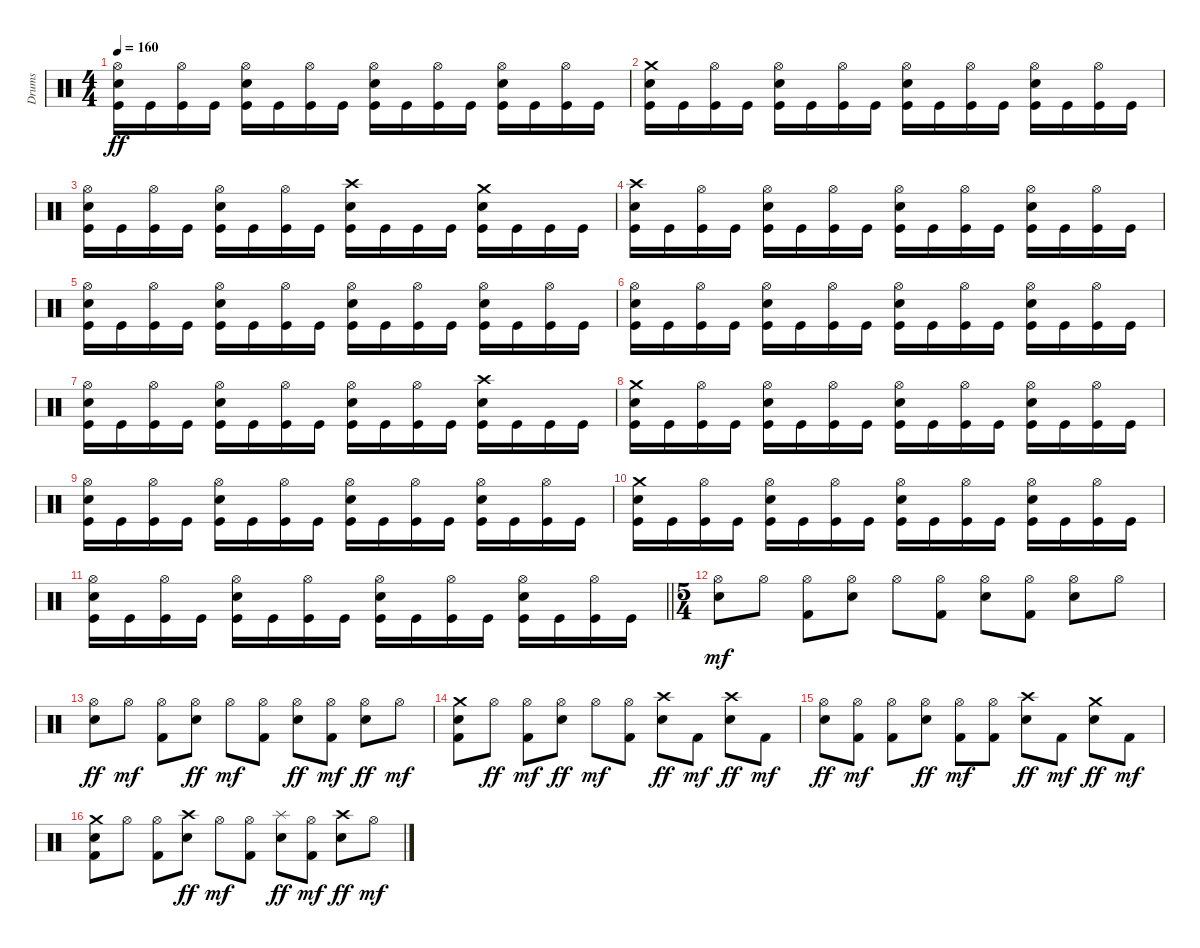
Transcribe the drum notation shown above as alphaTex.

\track ("Drums" "Drums") {instrument percussion bank 127}
\staff {score}
\articulation defaults
\ts (4 4)
\tempo 160
\clef neutral
\ks c
("Hi-Hat (open)" "Snare (hit) 2" "Kick (hit)").16{dy ff} "Kick (hit)".16 ("Hi-Hat (open)" "Kick (hit)").16 "Kick (hit)".16 ("Hi-Hat (open)" "Snare (hit) 2" "Kick (hit)").16 "Kick (hit)".16 ("Hi-Hat (open)" "Kick (hit)").16 "Kick (hit)".16 ("Hi-Hat (open)" "Snare (hit) 2" "Kick (hit)").16 "Kick (hit)".16 ("Hi-Hat (open)" "Kick (hit)").16 "Kick (hit)".16 ("Hi-Hat (open)" "Snare (hit) 2" "Kick (hit)").16 "Kick (hit)".16 ("Hi-Hat (open)" "Kick (hit)").16 "Kick (hit)".16 |
("Crash medium (hit)" "Snare (hit) 2" "Kick (hit)").16 "Kick (hit)".16 ("Hi-Hat (open)" "Kick (hit)").16 "Kick (hit)".16 ("Hi-Hat (open)" "Snare (hit) 2" "Kick (hit)").16 "Kick (hit)".16 ("Hi-Hat (open)" "Kick (hit)").16 "Kick (hit)".16 ("Hi-Hat (open)" "Snare (hit) 2" "Kick (hit)").16 "Kick (hit)".16 ("Hi-Hat (open)" "Kick (hit)").16 "Kick (hit)".16 ("Hi-Hat (open)" "Snare (hit) 2" "Kick (hit)").16 "Kick (hit)".16 ("Hi-Hat (open)" "Kick (hit)").16 "Kick (hit)".16 |
("Hi-Hat (open)" "Snare (hit) 2" "Kick (hit)").16 "Kick (hit)".16 ("Hi-Hat (open)" "Kick (hit)").16 "Kick (hit)".16 ("Hi-Hat (open)" "Snare (hit) 2" "Kick (hit)").16 "Kick (hit)".16 ("Hi-Hat (open)" "Kick (hit)").16 "Kick (hit)".16 ("Crash high (hit)" "Snare (hit) 2" "Kick (hit)").16 "Kick (hit)".16 "Kick (hit)".16 "Kick (hit)".16 ("Crash medium (hit)" "Snare (hit) 2" "Kick (hit)").16 "Kick (hit)".16 "Kick (hit)".16 "Kick (hit)".16 |
("Crash high (hit)" "Snare (hit) 2" "Kick (hit)").16 "Kick (hit)".16 ("Hi-Hat (open)" "Kick (hit)").16 "Kick (hit)".16 ("Hi-Hat (open)" "Snare (hit) 2" "Kick (hit)").16 "Kick (hit)".16 ("Hi-Hat (open)" "Kick (hit)").16 "Kick (hit)".16 ("Hi-Hat (open)" "Snare (hit) 2" "Kick (hit)").16 "Kick (hit)".16 ("Hi-Hat (open)" "Kick (hit)").16 "Kick (hit)".16 ("Hi-Hat (open)" "Snare (hit) 2" "Kick (hit)").16 "Kick (hit)".16 ("Hi-Hat (open)" "Kick (hit)").16 "Kick (hit)".16 |
("Hi-Hat (open)" "Snare (hit) 2" "Kick (hit)").16 "Kick (hit)".16 ("Hi-Hat (open)" "Kick (hit)").16 "Kick (hit)".16 ("Hi-Hat (open)" "Snare (hit) 2" "Kick (hit)").16 "Kick (hit)".16 ("Hi-Hat (open)" "Kick (hit)").16 "Kick (hit)".16 ("Hi-Hat (open)" "Snare (hit) 2" "Kick (hit)").16 "Kick (hit)".16 ("Hi-Hat (open)" "Kick (hit)").16 "Kick (hit)".16 ("Hi-Hat (open)" "Snare (hit) 2" "Kick (hit)").16 "Kick (hit)".16 ("Hi-Hat (open)" "Kick (hit)").16 "Kick (hit)".16 |
("Hi-Hat (open)" "Snare (hit) 2" "Kick (hit)").16 "Kick (hit)".16 ("Hi-Hat (open)" "Kick (hit)").16 "Kick (hit)".16 ("Hi-Hat (open)" "Snare (hit) 2" "Kick (hit)").16 "Kick (hit)".16 ("Hi-Hat (open)" "Kick (hit)").16 "Kick (hit)".16 ("Hi-Hat (open)" "Snare (hit) 2" "Kick (hit)").16 "Kick (hit)".16 ("Hi-Hat (open)" "Kick (hit)").16 "Kick (hit)".16 ("Hi-Hat (open)" "Snare (hit) 2" "Kick (hit)").16 "Kick (hit)".16 ("Hi-Hat (open)" "Kick (hit)").16 "Kick (hit)".16 |
("Hi-Hat (open)" "Snare (hit) 2" "Kick (hit)").16 "Kick (hit)".16 ("Hi-Hat (open)" "Kick (hit)").16 "Kick (hit)".16 ("Hi-Hat (open)" "Snare (hit) 2" "Kick (hit)").16 "Kick (hit)".16 ("Hi-Hat (open)" "Kick (hit)").16 "Kick (hit)".16 ("Hi-Hat (open)" "Snare (hit) 2" "Kick (hit)").16 "Kick (hit)".16 ("Hi-Hat (open)" "Kick (hit)").16 "Kick (hit)".16 ("Crash high (hit)" "Snare (hit) 2" "Kick (hit)").16 "Kick (hit)".16 "Kick (hit)".16 "Kick (hit)".16 |
("Crash medium (hit)" "Snare (hit) 2" "Kick (hit)").16 "Kick (hit)".16 ("Hi-Hat (open)" "Kick (hit)").16 "Kick (hit)".16 ("Hi-Hat (open)" "Snare (hit) 2" "Kick (hit)").16 "Kick (hit)".16 ("Hi-Hat (open)" "Kick (hit)").16 "Kick (hit)".16 ("Hi-Hat (open)" "Snare (hit) 2" "Kick (hit)").16 "Kick (hit)".16 ("Hi-Hat (open)" "Kick (hit)").16 "Kick (hit)".16 ("Hi-Hat (open)" "Snare (hit) 2" "Kick (hit)").16 "Kick (hit)".16 ("Hi-Hat (open)" "Kick (hit)").16 "Kick (hit)".16 |
("Hi-Hat (open)" "Snare (hit) 2" "Kick (hit)").16 "Kick (hit)".16 ("Hi-Hat (open)" "Kick (hit)").16 "Kick (hit)".16 ("Hi-Hat (open)" "Snare (hit) 2" "Kick (hit)").16 "Kick (hit)".16 ("Hi-Hat (open)" "Kick (hit)").16 "Kick (hit)".16 ("Hi-Hat (open)" "Snare (hit) 2" "Kick (hit)").16 "Kick (hit)".16 ("Hi-Hat (open)" "Kick (hit)").16 "Kick (hit)".16 ("Hi-Hat (open)" "Snare (hit) 2" "Kick (hit)").16 "Kick (hit)".16 ("Hi-Hat (open)" "Kick (hit)").16 "Kick (hit)".16 |
("Crash medium (hit)" "Snare (hit) 2" "Kick (hit)").16 "Kick (hit)".16 ("Hi-Hat (open)" "Kick (hit)").16 "Kick (hit)".16 ("Hi-Hat (open)" "Snare (hit) 2" "Kick (hit)").16 "Kick (hit)".16 ("Hi-Hat (open)" "Kick (hit)").16 "Kick (hit)".16 ("Hi-Hat (open)" "Snare (hit) 2" "Kick (hit)").16 "Kick (hit)".16 ("Hi-Hat (open)" "Kick (hit)").16 "Kick (hit)".16 ("Hi-Hat (open)" "Snare (hit) 2" "Kick (hit)").16 "Kick (hit)".16 ("Hi-Hat (open)" "Kick (hit)").16 "Kick (hit)".16 |
\barLineRight lightlight
("Hi-Hat (open)" "Snare (hit) 2" "Kick (hit)").16 "Kick (hit)".16 ("Hi-Hat (open)" "Kick (hit)").16 "Kick (hit)".16 ("Hi-Hat (open)" "Snare (hit) 2" "Kick (hit)").16 "Kick (hit)".16 ("Hi-Hat (open)" "Kick (hit)").16 "Kick (hit)".16 ("Hi-Hat (open)" "Snare (hit) 2" "Kick (hit)").16 "Kick (hit)".16 ("Hi-Hat (open)" "Kick (hit)").16 "Kick (hit)".16 ("Hi-Hat (open)" "Snare (hit) 2" "Kick (hit)").16 "Kick (hit)".16 ("Hi-Hat (open)" "Kick (hit)").16 "Kick (hit)".16 |
\ts (5 4)
("Hi-Hat (open)" "Snare (hit) 2").8{dy mf volume 10} "Hi-Hat (open)".8 ("Hi-Hat (open)" "Kick (hit) 2").8 ("Hi-Hat (open)" "Snare (hit) 2").8 "Hi-Hat (open)".8 ("Hi-Hat (open)" "Kick (hit) 2").8 ("Hi-Hat (open)" "Snare (hit) 2").8 ("Hi-Hat (open)" "Kick (hit) 2").8 ("Hi-Hat (open)" "Snare (hit) 2").8 "Hi-Hat (open)".8 |
("Hi-Hat (open)" "Snare (hit) 2").8{dy ff} "Hi-Hat (open)".8{dy mf} ("Hi-Hat (open)" "Kick (hit) 2").8 ("Hi-Hat (open)" "Snare (hit) 2").8{dy ff} "Hi-Hat (open)".8{dy mf} ("Hi-Hat (open)" "Kick (hit) 2").8 ("Hi-Hat (open)" "Snare (hit) 2").8{dy ff} ("Hi-Hat (open)" "Kick (hit) 2").8{dy mf} ("Hi-Hat (open)" "Snare (hit) 2").8{dy ff} "Hi-Hat (open)".8{dy mf} |
("Crash medium (hit)" "Snare (hit) 2" "Kick (hit) 2").8 "Hi-Hat (open)".8{dy ff} ("Hi-Hat (open)" "Kick (hit) 2").8{dy mf} ("Hi-Hat (open)" "Snare (hit) 2").8{dy ff} "Hi-Hat (open)".8{dy mf} ("Hi-Hat (open)" "Kick (hit) 2").8 ("Crash high (hit)" "Snare (hit) 2").8{dy ff} "Kick (hit) 2".8{dy mf} ("Crash high (hit)" "Snare (hit) 2").8{dy ff} "Kick (hit) 2".8{dy mf} |
("Hi-Hat (open)" "Snare (hit) 2").8{dy ff} ("Hi-Hat (open)" "Kick (hit) 2").8{dy mf} ("Hi-Hat (open)" "Kick (hit) 2").8 ("Hi-Hat (open)" "Snare (hit) 2").8{dy ff} ("Hi-Hat (open)" "Kick (hit) 2").8{dy mf} ("Hi-Hat (open)" "Kick (hit) 2").8 ("Crash high (hit)" "Snare (hit) 2").8{dy ff} "Kick (hit) 2".8{dy mf} ("Crash medium (hit)" "Snare (hit) 2").8{dy ff} "Kick (hit) 2".8{dy mf} |
("Crash medium (hit)" "Snare (hit) 2" "Kick (hit) 2").8 "Hi-Hat (open)".8 ("Hi-Hat (open)" "Kick (hit) 2").8 ("Crash high (hit)" "Snare (hit) 2").8{dy ff} "Hi-Hat (open)".8{dy mf} ("Hi-Hat (open)" "Kick (hit) 2").8 ("Splash (hit)" "Snare (hit) 2").8{dy ff} ("Hi-Hat (open)" "Kick (hit) 2").8{dy mf} ("Crash high (hit)" "Snare (hit) 2").8{dy ff} "Hi-Hat (open)".8{dy mf}
